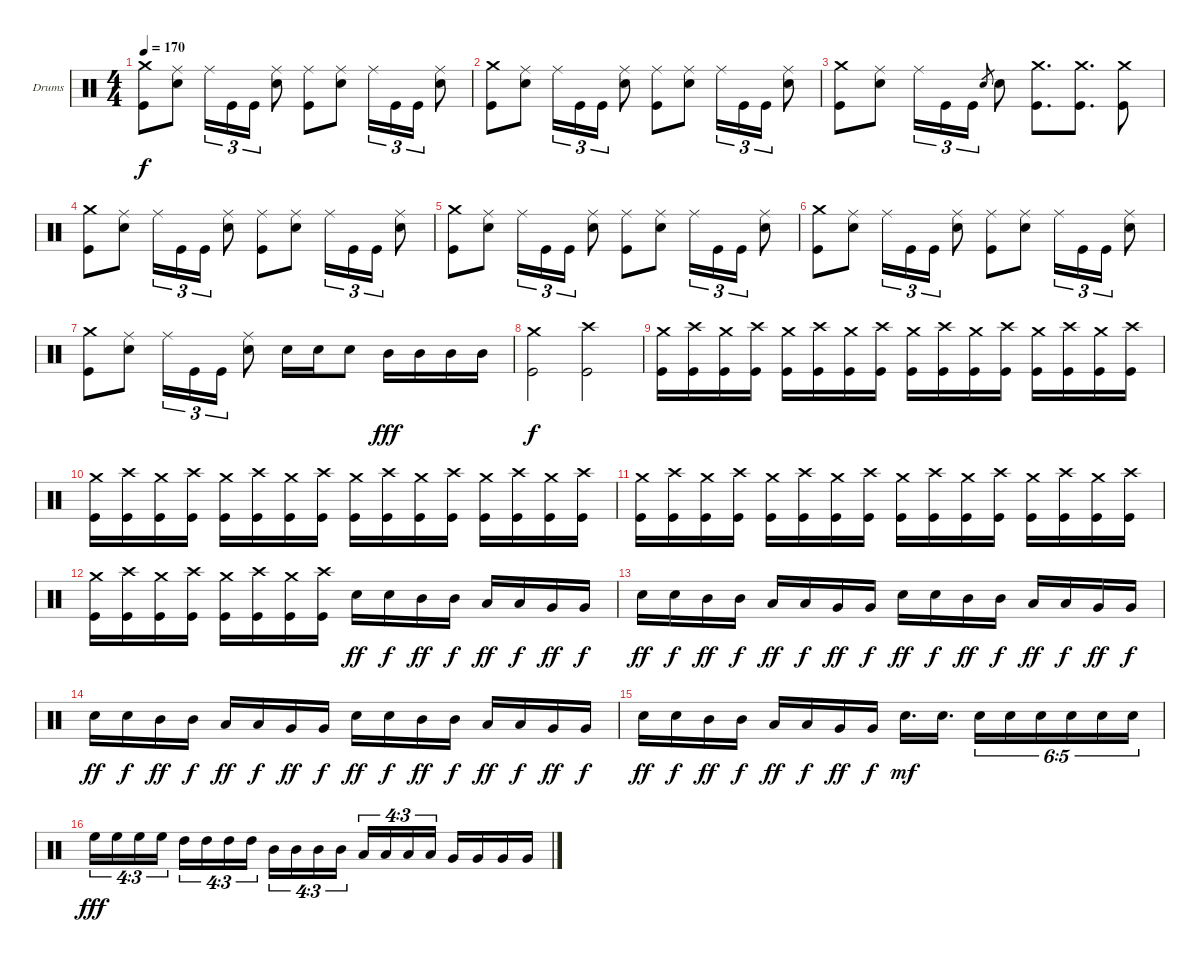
\bracketExtendMode groupsimilarinstruments
\firstSystemTrackNameOrientation horizontal
\otherSystemsTrackNameOrientation horizontal
\track ("Drums" "Drums") {instrument percussion}
\staff {score}
\articulation defaults
\ts (4 4)
\tempo 170
\clef neutral
\ks c
("Crash medium (hit)" "Kick (hit)").8{dy f} ("Ride (middle)" "Snare (hit) 2").8 "Ride (middle)".16{tu (3 2)} "Kick (hit)".16{tu (3 2)} "Kick (hit)".16{tu (3 2)} ("Ride (middle)" "Snare (hit) 2").8 ("Ride (middle)" "Kick (hit)").8 ("Ride (middle)" "Snare (hit) 2").8 "Ride (middle)".16{tu (3 2)} "Kick (hit)".16{tu (3 2)} "Kick (hit)".16{tu (3 2)} ("Ride (middle)" "Snare (hit) 2").8 |
("Crash medium (hit)" "Kick (hit)").8 ("Ride (middle)" "Snare (hit) 2").8 "Ride (middle)".16{tu (3 2)} "Kick (hit)".16{tu (3 2)} "Kick (hit)".16{tu (3 2)} ("Ride (middle)" "Snare (hit) 2").8 ("Ride (middle)" "Kick (hit)").8 ("Ride (middle)" "Snare (hit) 2").8 "Ride (middle)".16{tu (3 2)} "Kick (hit)".16{tu (3 2)} "Kick (hit)".16{tu (3 2)} ("Ride (middle)" "Snare (hit) 2").8 |
("Crash medium (hit)" "Kick (hit)").8 ("Ride (middle)" "Snare (hit) 2").8 "Ride (middle)".16{tu (3 2)} "Kick (hit)".16{tu (3 2)} "Kick (hit)".16{tu (3 2)} "Snare (hit) 2".8{gr} "Snare (hit) 2".8 ("Crash medium (hit)" "Kick (hit)").8{d} ("Crash medium (hit)" "Kick (hit)").8{d} ("Crash medium (hit)" "Kick (hit)").8 |
("Crash medium (hit)" "Kick (hit)").8 ("Ride (middle)" "Snare (hit) 2").8 "Ride (middle)".16{tu (3 2)} "Kick (hit)".16{tu (3 2)} "Kick (hit)".16{tu (3 2)} ("Ride (middle)" "Snare (hit) 2").8 ("Ride (middle)" "Kick (hit)").8 ("Ride (middle)" "Snare (hit) 2").8 "Ride (middle)".16{tu (3 2)} "Kick (hit)".16{tu (3 2)} "Kick (hit)".16{tu (3 2)} ("Ride (middle)" "Snare (hit) 2").8 |
("Crash medium (hit)" "Kick (hit)").8 ("Ride (middle)" "Snare (hit) 2").8 "Ride (middle)".16{tu (3 2)} "Kick (hit)".16{tu (3 2)} "Kick (hit)".16{tu (3 2)} ("Ride (middle)" "Snare (hit) 2").8 ("Ride (middle)" "Kick (hit)").8 ("Ride (middle)" "Snare (hit) 2").8 "Ride (middle)".16{tu (3 2)} "Kick (hit)".16{tu (3 2)} "Kick (hit)".16{tu (3 2)} ("Ride (middle)" "Snare (hit) 2").8 |
("Crash medium (hit)" "Kick (hit)").8 ("Ride (middle)" "Snare (hit) 2").8 "Ride (middle)".16{tu (3 2)} "Kick (hit)".16{tu (3 2)} "Kick (hit)".16{tu (3 2)} ("Ride (middle)" "Snare (hit) 2").8 ("Ride (middle)" "Kick (hit)").8 ("Ride (middle)" "Snare (hit) 2").8 "Ride (middle)".16{tu (3 2)} "Kick (hit)".16{tu (3 2)} "Kick (hit)".16{tu (3 2)} ("Ride (middle)" "Snare (hit) 2").8 |
("Crash medium (hit)" "Kick (hit)").8 ("Ride (middle)" "Snare (hit) 2").8 "Ride (middle)".16{tu (3 2)} "Kick (hit)".16{tu (3 2)} "Kick (hit)".16{tu (3 2)} ("Ride (middle)" "Snare (hit) 2").8 "Snare (hit) 2".16 "Snare (hit) 2".16 "Snare (hit) 2".8 "Mid Tom (hit)".16{dy fff} "Mid Tom (hit)".16 "Mid Tom (hit)".16 "Mid Tom (hit)".16 |
("Crash medium (hit)" "Kick (hit)").2{dy f} ("Kick (hit)" "Crash high (hit)").2 |
("Kick (hit)" "Crash medium (hit)").16 ("Kick (hit)" "Crash high (hit)").16 ("Kick (hit)" "Crash medium (hit)").16 ("Kick (hit)" "Crash high (hit)").16 ("Kick (hit)" "Crash medium (hit)").16 ("Kick (hit)" "Crash high (hit)").16 ("Kick (hit)" "Crash medium (hit)").16 ("Kick (hit)" "Crash high (hit)").16 ("Kick (hit)" "Crash medium (hit)").16 ("Kick (hit)" "Crash high (hit)").16 ("Kick (hit)" "Crash medium (hit)").16 ("Kick (hit)" "Crash high (hit)").16 ("Kick (hit)" "Crash medium (hit)").16 ("Kick (hit)" "Crash high (hit)").16 ("Kick (hit)" "Crash medium (hit)").16 ("Kick (hit)" "Crash high (hit)").16 |
("Kick (hit)" "Crash medium (hit)").16 ("Kick (hit)" "Crash high (hit)").16 ("Kick (hit)" "Crash medium (hit)").16 ("Kick (hit)" "Crash high (hit)").16 ("Kick (hit)" "Crash medium (hit)").16 ("Kick (hit)" "Crash high (hit)").16 ("Kick (hit)" "Crash medium (hit)").16 ("Kick (hit)" "Crash high (hit)").16 ("Kick (hit)" "Crash medium (hit)").16 ("Kick (hit)" "Crash high (hit)").16 ("Kick (hit)" "Crash medium (hit)").16 ("Kick (hit)" "Crash high (hit)").16 ("Kick (hit)" "Crash medium (hit)").16 ("Kick (hit)" "Crash high (hit)").16 ("Kick (hit)" "Crash medium (hit)").16 ("Kick (hit)" "Crash high (hit)").16 |
("Kick (hit)" "Crash medium (hit)").16 ("Kick (hit)" "Crash high (hit)").16 ("Kick (hit)" "Crash medium (hit)").16 ("Kick (hit)" "Crash high (hit)").16 ("Kick (hit)" "Crash medium (hit)").16 ("Kick (hit)" "Crash high (hit)").16 ("Kick (hit)" "Crash medium (hit)").16 ("Kick (hit)" "Crash high (hit)").16 ("Kick (hit)" "Crash medium (hit)").16 ("Kick (hit)" "Crash high (hit)").16 ("Kick (hit)" "Crash medium (hit)").16 ("Kick (hit)" "Crash high (hit)").16 ("Kick (hit)" "Crash medium (hit)").16 ("Kick (hit)" "Crash high (hit)").16 ("Kick (hit)" "Crash medium (hit)").16 ("Kick (hit)" "Crash high (hit)").16 |
("Kick (hit)" "Crash medium (hit)").16 ("Kick (hit)" "Crash high (hit)").16 ("Kick (hit)" "Crash medium (hit)").16 ("Kick (hit)" "Crash high (hit)").16 ("Kick (hit)" "Crash medium (hit)").16 ("Kick (hit)" "Crash high (hit)").16 ("Kick (hit)" "Crash medium (hit)").16 ("Kick (hit)" "Crash high (hit)").16 "Snare (hit) 2".16{dy ff} "Snare (hit) 2".16{dy f} "Mid Tom (hit)".16{dy ff} "Mid Tom (hit)".16{dy f} "Low Tom (hit)".16{dy ff} "Low Tom (hit)".16{dy f} "Very Low Tom (hit)".16{dy ff} "Very Low Tom (hit)".16{dy f} |
"Snare (hit) 2".16{dy ff} "Snare (hit) 2".16{dy f} "Mid Tom (hit)".16{dy ff} "Mid Tom (hit)".16{dy f} "Low Tom (hit)".16{dy ff} "Low Tom (hit)".16{dy f} "Very Low Tom (hit)".16{dy ff} "Very Low Tom (hit)".16{dy f} "Snare (hit) 2".16{dy ff} "Snare (hit) 2".16{dy f} "Mid Tom (hit)".16{dy ff} "Mid Tom (hit)".16{dy f} "Low Tom (hit)".16{dy ff} "Low Tom (hit)".16{dy f} "Very Low Tom (hit)".16{dy ff} "Very Low Tom (hit)".16{dy f} |
"Snare (hit) 2".16{dy ff} "Snare (hit) 2".16{dy f} "Mid Tom (hit)".16{dy ff} "Mid Tom (hit)".16{dy f} "Low Tom (hit)".16{dy ff} "Low Tom (hit)".16{dy f} "Very Low Tom (hit)".16{dy ff} "Very Low Tom (hit)".16{dy f} "Snare (hit) 2".16{dy ff} "Snare (hit) 2".16{dy f} "Mid Tom (hit)".16{dy ff} "Mid Tom (hit)".16{dy f} "Low Tom (hit)".16{dy ff} "Low Tom (hit)".16{dy f} "Very Low Tom (hit)".16{dy ff} "Very Low Tom (hit)".16{dy f} |
"Snare (hit) 2".16{dy ff} "Snare (hit) 2".16{dy f} "Mid Tom (hit)".16{dy ff} "Mid Tom (hit)".16{dy f} "Low Tom (hit)".16{dy ff} "Low Tom (hit)".16{dy f} "Very Low Tom (hit)".16{dy ff} "Very Low Tom (hit)".16{dy f} "Snare (hit) 2".16{d dy mf} "Snare (hit) 2".16{d} "Snare (hit) 2".16{tu (6 5)} "Snare (hit) 2".16{tu (6 5)} "Snare (hit) 2".16{tu (6 5)} "Snare (hit) 2".16{tu (6 5)} "Snare (hit) 2".16{tu (6 5)} "Snare (hit) 2".16{tu (6 5)} |
"High Floor Tom (hit)".16{tu (4 3) dy fff} "High Floor Tom (hit)".16{tu (4 3)} "High Floor Tom (hit)".16{tu (4 3)} "High Floor Tom (hit)".16{tu (4 3)} "High Tom (hit)".16{tu (4 3)} "High Tom (hit)".16{tu (4 3)} "High Tom (hit)".16{tu (4 3)} "High Tom (hit)".16{tu (4 3)} "Mid Tom (hit)".16{tu (4 3)} "Mid Tom (hit)".16{tu (4 3)} "Mid Tom (hit)".16{tu (4 3)} "Mid Tom (hit)".16{tu (4 3)} "Low Tom (hit)".16{tu (4 3)} "Low Tom (hit)".16{tu (4 3)} "Low Tom (hit)".16{tu (4 3)} "Low Tom (hit)".16{tu (4 3)} "Very Low Tom (hit)".16 "Very Low Tom (hit)".16 "Very Low Tom (hit)".16 "Very Low Tom (hit)".16
